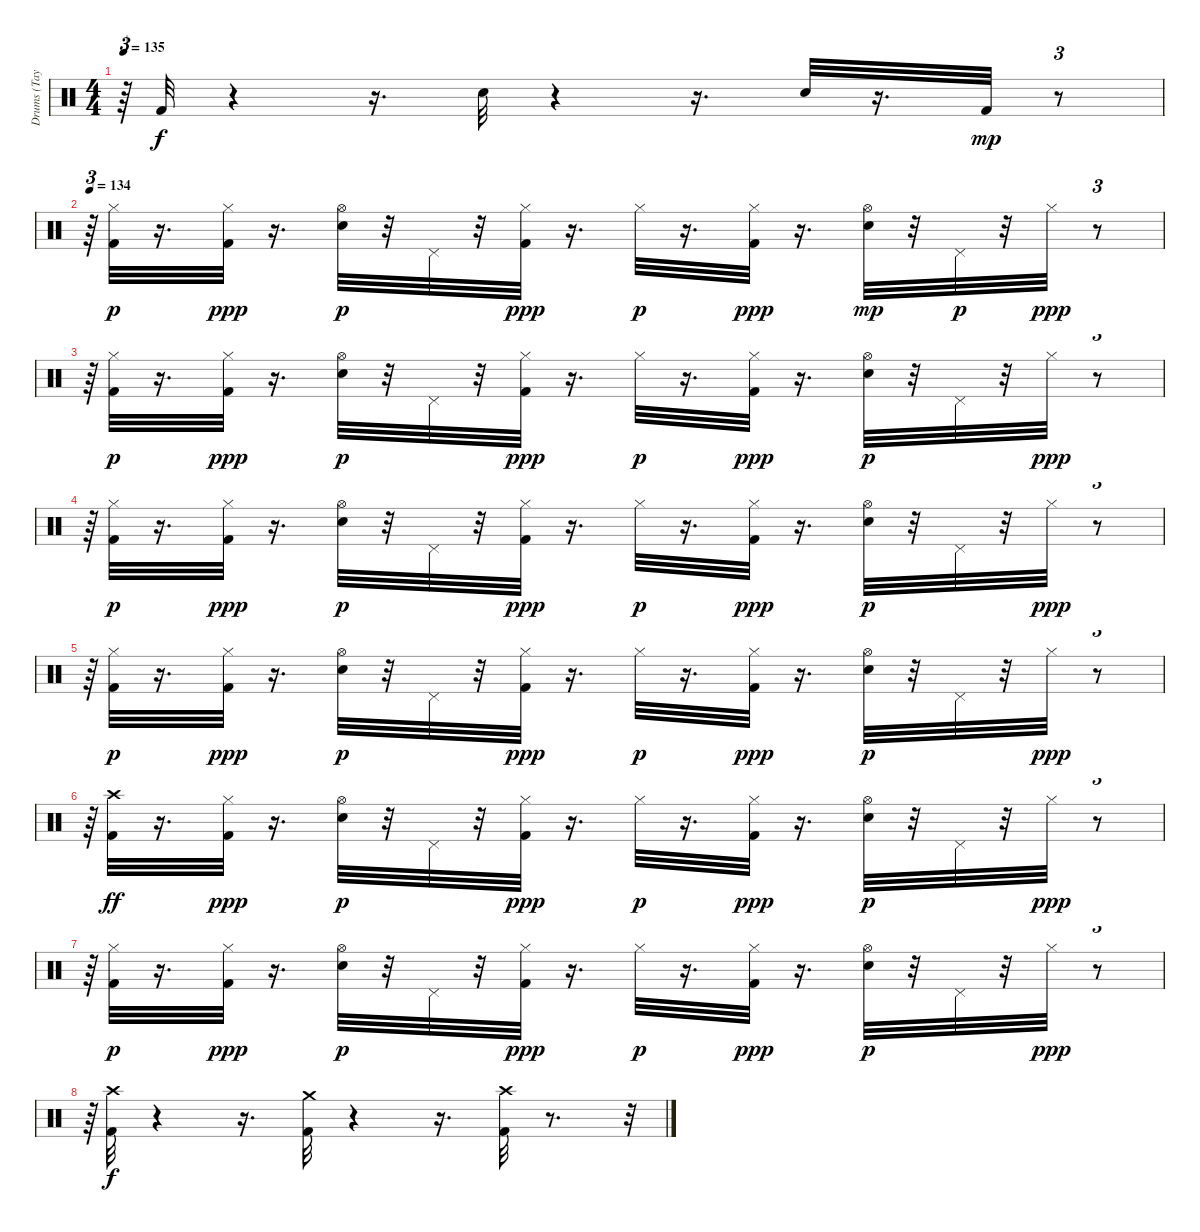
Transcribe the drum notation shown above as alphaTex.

\track ("Drums (Taylor)" "Drums (Tay") {instrument percussion}
\staff {score}
\articulation defaults
\ts (4 4)
\tempo 135
\clef neutral
\ks c
r.64{tu (3 2) dy mp} "Kick (hit) 2".32{dy f} r.4 r.16{d} "Snare (hit) 2".32 r.4 r.16{d} "Snare (hit) 2".32 r.16{d} "Kick (hit) 2".32{dy mp} r.8{tu (3 2)} |
\tempo 134
r.64{tu (3 2)} ("Kick (hit) 2" "Hi-Hat (closed)").32{dy p} r.16{d} ("Kick (hit) 2" "Hi-Hat (closed)").32{dy ppp} r.16{d} ("Snare (hit) 2" "Hi-Hat (open)").32{dy p} r.32 "Pedal Hi-Hat (hit)".32 r.32 ("Kick (hit) 2" "Hi-Hat (closed)").32{dy ppp} r.16{d} "Hi-Hat (closed)".32{dy p} r.16{d} ("Kick (hit) 2" "Hi-Hat (closed)").32{dy ppp} r.16{d} ("Hi-Hat (open)" "Snare (hit) 2").32{dy mp} r.32 "Pedal Hi-Hat (hit)".32{dy p} r.32 "Hi-Hat (closed)".32{dy ppp} r.8{tu (3 2)} |
r.64{tu (3 2)} ("Kick (hit) 2" "Hi-Hat (closed)").32{dy p} r.16{d} ("Kick (hit) 2" "Hi-Hat (closed)").32{dy ppp} r.16{d} ("Snare (hit) 2" "Hi-Hat (open)").32{dy p} r.32 "Pedal Hi-Hat (hit)".32 r.32 ("Kick (hit) 2" "Hi-Hat (closed)").32{dy ppp} r.16{d} "Hi-Hat (closed)".32{dy p} r.16{d} ("Kick (hit) 2" "Hi-Hat (closed)").32{dy ppp} r.16{d} ("Snare (hit) 2" "Hi-Hat (open)").32{dy p} r.32 "Pedal Hi-Hat (hit)".32 r.32 "Hi-Hat (closed)".32{dy ppp} r.8{tu (3 2)} |
r.64{tu (3 2)} ("Kick (hit) 2" "Hi-Hat (closed)").32{dy p} r.16{d} ("Kick (hit) 2" "Hi-Hat (closed)").32{dy ppp} r.16{d} ("Snare (hit) 2" "Hi-Hat (open)").32{dy p} r.32 "Pedal Hi-Hat (hit)".32 r.32 ("Kick (hit) 2" "Hi-Hat (closed)").32{dy ppp} r.16{d} "Hi-Hat (closed)".32{dy p} r.16{d} ("Kick (hit) 2" "Hi-Hat (closed)").32{dy ppp} r.16{d} ("Snare (hit) 2" "Hi-Hat (open)").32{dy p} r.32 "Pedal Hi-Hat (hit)".32 r.32 "Hi-Hat (closed)".32{dy ppp} r.8{tu (3 2)} |
r.64{tu (3 2)} ("Kick (hit) 2" "Hi-Hat (closed)").32{dy p} r.16{d} ("Kick (hit) 2" "Hi-Hat (closed)").32{dy ppp} r.16{d} ("Snare (hit) 2" "Hi-Hat (open)").32{dy p} r.32 "Pedal Hi-Hat (hit)".32 r.32 ("Kick (hit) 2" "Hi-Hat (closed)").32{dy ppp} r.16{d} "Hi-Hat (closed)".32{dy p} r.16{d} ("Kick (hit) 2" "Hi-Hat (closed)").32{dy ppp} r.16{d} ("Snare (hit) 2" "Hi-Hat (open)").32{dy p} r.32 "Pedal Hi-Hat (hit)".32 r.32 "Hi-Hat (closed)".32{dy ppp} r.8{tu (3 2)} |
r.64{tu (3 2)} ("Kick (hit) 2" "Crash high (hit)").32{dy ff} r.16{d} ("Kick (hit) 2" "Hi-Hat (closed)").32{dy ppp} r.16{d} ("Snare (hit) 2" "Hi-Hat (open)").32{dy p} r.32 "Pedal Hi-Hat (hit)".32 r.32 ("Kick (hit) 2" "Hi-Hat (closed)").32{dy ppp} r.16{d} "Hi-Hat (closed)".32{dy p} r.16{d} ("Kick (hit) 2" "Hi-Hat (closed)").32{dy ppp} r.16{d} ("Snare (hit) 2" "Hi-Hat (open)").32{dy p} r.32 "Pedal Hi-Hat (hit)".32 r.32 "Hi-Hat (closed)".32{dy ppp} r.8{tu (3 2)} |
r.64{tu (3 2)} ("Kick (hit) 2" "Hi-Hat (closed)").32{dy p} r.16{d} ("Kick (hit) 2" "Hi-Hat (closed)").32{dy ppp} r.16{d} ("Snare (hit) 2" "Hi-Hat (open)").32{dy p} r.32 "Pedal Hi-Hat (hit)".32 r.32 ("Kick (hit) 2" "Hi-Hat (closed)").32{dy ppp} r.16{d} "Hi-Hat (closed)".32{dy p} r.16{d} ("Kick (hit) 2" "Hi-Hat (closed)").32{dy ppp} r.16{d} ("Snare (hit) 2" "Hi-Hat (open)").32{dy p} r.32 "Pedal Hi-Hat (hit)".32 r.32 "Hi-Hat (closed)".32{dy ppp} r.8{tu (3 2)} |
r.64{tu (3 2)} ("Crash high (hit)" "Kick (hit) 2").32{dy f} r.4 r.16{d} ("Kick (hit) 2" "Crash medium (hit)").32 r.4 r.16{d} ("Crash high (hit)" "Kick (hit) 2").32 r.8{d} r.32{tu (3 2)}
